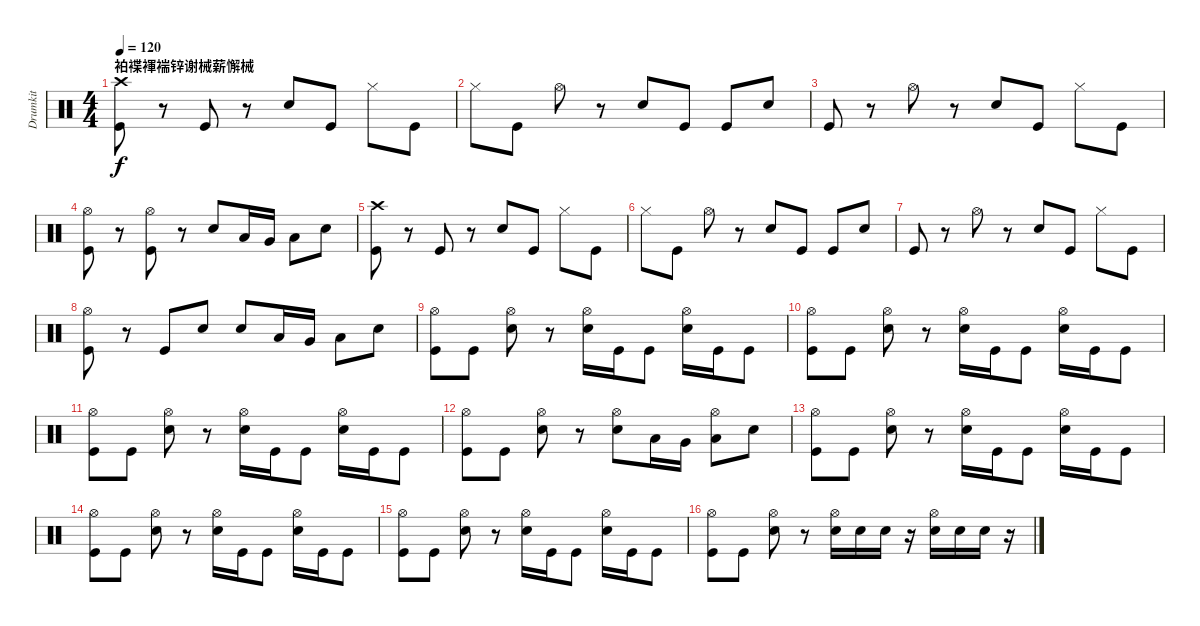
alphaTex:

\track ("Drumkit" "Drumkit") {instrument percussion}
\staff {score}
\articulation defaults
\ts (4 4)
\section ("" "袙褋褌褍锌谢械薪懈械")
\tempo 120
\clef neutral
\ks c
("Kick (hit)" "Crash high (hit)").8{dy f} r.8 "Kick (hit)".8 r.8 "Snare (hit) 2".8 "Kick (hit)".8 "Hi-Hat (closed)".8 "Kick (hit)".8 |
"Hi-Hat (closed)".8 "Kick (hit)".8 "Hi-Hat (open)".8 r.8 "Snare (hit) 2".8 "Kick (hit)".8 "Kick (hit)".8 "Snare (hit) 2".8 |
"Kick (hit)".8 r.8 "Hi-Hat (open)".8 r.8 "Snare (hit) 2".8 "Kick (hit)".8 "Hi-Hat (closed)".8 "Kick (hit)".8 |
("Kick (hit)" "Hi-Hat (open)").8 r.8 ("Kick (hit)" "Hi-Hat (open)").8 r.8 "Snare (hit) 2".8 "Low Tom (hit)".16 "Very Low Tom (hit)".16 "Low Floor Tom (hit)".8 "Snare (hit) 2".8 |
("Kick (hit)" "Crash high (hit)").8 r.8 "Kick (hit)".8 r.8 "Snare (hit) 2".8 "Kick (hit)".8 "Hi-Hat (closed)".8 "Kick (hit)".8 |
"Hi-Hat (closed)".8 "Kick (hit)".8 "Hi-Hat (open)".8 r.8 "Snare (hit) 2".8 "Kick (hit)".8 "Kick (hit)".8 "Snare (hit) 2".8 |
"Kick (hit)".8 r.8 "Hi-Hat (open)".8 r.8 "Snare (hit) 2".8 "Kick (hit)".8 "Hi-Hat (closed)".8 "Kick (hit)".8 |
("Kick (hit)" "Hi-Hat (open)").8 r.8 "Kick (hit)".8 "Snare (hit) 2".8 "Snare (hit) 2".8 "Low Tom (hit)".16 "Very Low Tom (hit)".16 "Low Floor Tom (hit)".8 "Snare (hit) 2".8 |
("Kick (hit)" "Hi-Hat (open)").8 "Kick (hit)".8 ("Snare (hit) 2" "Hi-Hat (open)").8 r.8 ("Snare (hit) 2" "Hi-Hat (open)").16 "Kick (hit)".16 "Kick (hit)".8 ("Snare (hit) 2" "Hi-Hat (open)").16 "Kick (hit)".16 "Kick (hit)".8 |
("Kick (hit)" "Hi-Hat (open)").8 "Kick (hit)".8 ("Snare (hit) 2" "Hi-Hat (open)").8 r.8 ("Snare (hit) 2" "Hi-Hat (open)").16 "Kick (hit)".16 "Kick (hit)".8 ("Snare (hit) 2" "Hi-Hat (open)").16 "Kick (hit)".16 "Kick (hit)".8 |
("Kick (hit)" "Hi-Hat (open)").8 "Kick (hit)".8 ("Snare (hit) 2" "Hi-Hat (open)").8 r.8 ("Snare (hit) 2" "Hi-Hat (open)").16 "Kick (hit)".16 "Kick (hit)".8 ("Snare (hit) 2" "Hi-Hat (open)").16 "Kick (hit)".16 "Kick (hit)".8 |
("Kick (hit)" "Hi-Hat (open)").8 "Kick (hit)".8 ("Snare (hit) 2" "Hi-Hat (open)").8 r.8 ("Snare (hit) 2" "Hi-Hat (open)").8 "Low Tom (hit)".16 "Very Low Tom (hit)".16 ("Low Floor Tom (hit)" "Hi-Hat (open)").8 "Snare (hit) 2".8 |
("Kick (hit)" "Hi-Hat (open)").8 "Kick (hit)".8 ("Snare (hit) 2" "Hi-Hat (open)").8 r.8 ("Snare (hit) 2" "Hi-Hat (open)").16 "Kick (hit)".16 "Kick (hit)".8 ("Snare (hit) 2" "Hi-Hat (open)").16 "Kick (hit)".16 "Kick (hit)".8 |
("Kick (hit)" "Hi-Hat (open)").8 "Kick (hit)".8 ("Snare (hit) 2" "Hi-Hat (open)").8 r.8 ("Snare (hit) 2" "Hi-Hat (open)").16 "Kick (hit)".16 "Kick (hit)".8 ("Snare (hit) 2" "Hi-Hat (open)").16 "Kick (hit)".16 "Kick (hit)".8 |
("Kick (hit)" "Hi-Hat (open)").8 "Kick (hit)".8 ("Snare (hit) 2" "Hi-Hat (open)").8 r.8 ("Snare (hit) 2" "Hi-Hat (open)").16 "Kick (hit)".16 "Kick (hit)".8 ("Snare (hit) 2" "Hi-Hat (open)").16 "Kick (hit)".16 "Kick (hit)".8 |
("Kick (hit)" "Hi-Hat (open)").8 "Kick (hit)".8 ("Snare (hit) 2" "Hi-Hat (open)").8 r.8 ("Snare (hit) 2" "Hi-Hat (open)").16 "Snare (hit) 2".16 "Snare (hit) 2".16 r.16 ("Snare (hit) 2" "Hi-Hat (open)").16 "Snare (hit) 2".16 "Snare (hit) 2".16 r.16
